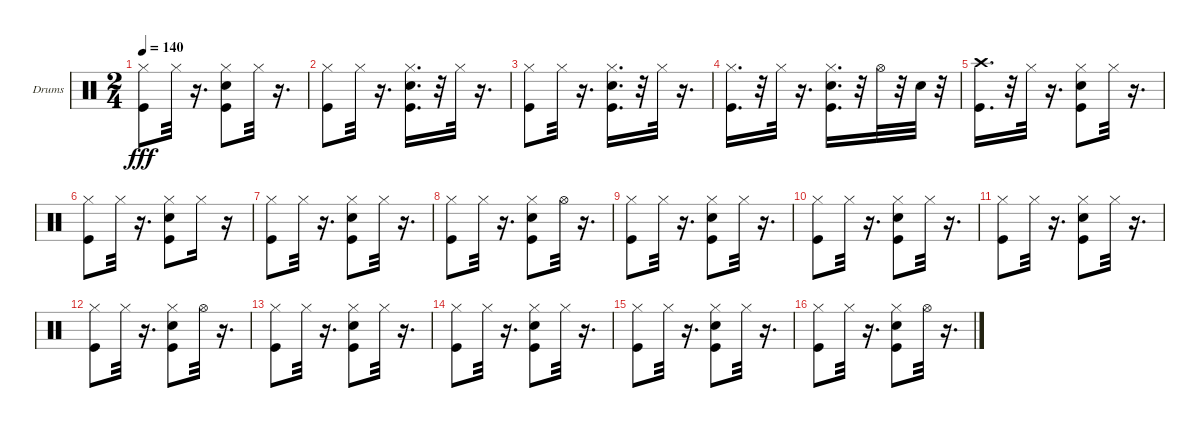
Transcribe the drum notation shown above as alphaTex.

\bracketExtendMode groupsimilarinstruments
\firstSystemTrackNameOrientation horizontal
\otherSystemsTrackNameOrientation horizontal
\track ("Ударные" "Drums") {instrument percussion}
\staff {score}
\articulation defaults
\ts (2 4)
\tempo 140
\clef neutral
\ks c
("Kick (hit)" "Hi-Hat (closed)").8{dy fff} "Hi-Hat (closed)".32 r.16{d} ("Hi-Hat (closed)" "Snare (hit) 2" "Kick (hit)").8 "Hi-Hat (closed)".32 r.16{d} |
("Kick (hit)" "Hi-Hat (closed)").8 "Hi-Hat (closed)".32 r.16{d} ("Snare (hit) 2" "Kick (hit)" "Hi-Hat (closed)").16{d} r.32 "Hi-Hat (closed)".32 r.16{d} |
("Kick (hit)" "Hi-Hat (closed)").8 "Hi-Hat (closed)".32 r.16{d} ("Snare (hit) 2" "Kick (hit)" "Hi-Hat (closed)").16{d} r.32 "Hi-Hat (closed)".32 r.16{d} |
("Kick (hit)" "Hi-Hat (closed)").16{d} r.32 "Hi-Hat (closed)".32 r.16{d} ("Snare (hit) 2" "Kick (hit)" "Hi-Hat (closed)").16{d} r.32 "Hi-Hat (open)".32 r.32 "Snare (hit) 2".32 r.32 |
("Kick (hit)" "Crash high (hit)").16{d} r.32 "Hi-Hat (closed)".32 r.16{d} ("Kick (hit)" "Snare (hit) 2" "Hi-Hat (closed)").8 "Hi-Hat (closed)".32 r.16{d} |
("Kick (hit)" "Hi-Hat (closed)").8 "Hi-Hat (closed)".32 r.16{d} ("Kick (hit)" "Hi-Hat (closed)" "Snare (hit) 2").8 "Hi-Hat (closed)".16 r.16 |
("Kick (hit)" "Hi-Hat (closed)").8 "Hi-Hat (closed)".32 r.16{d} ("Snare (hit) 2" "Kick (hit)" "Hi-Hat (closed)").8 "Hi-Hat (closed)".32 r.16{d} |
("Kick (hit)" "Hi-Hat (closed)").8 "Hi-Hat (closed)".32 r.16{d} ("Snare (hit) 2" "Hi-Hat (closed)" "Kick (hit)").8 "Hi-Hat (open)".32 r.16{d} |
("Kick (hit)" "Hi-Hat (closed)").8 "Hi-Hat (closed)".32 r.16{d} ("Hi-Hat (closed)" "Snare (hit) 2" "Kick (hit)").8 "Hi-Hat (closed)".32 r.16{d} |
("Kick (hit)" "Hi-Hat (closed)").8 "Hi-Hat (closed)".32 r.16{d} ("Snare (hit) 2" "Kick (hit)" "Hi-Hat (closed)").8 "Hi-Hat (closed)".32 r.16{d} |
("Kick (hit)" "Hi-Hat (closed)").8 "Hi-Hat (closed)".32 r.16{d} ("Hi-Hat (closed)" "Snare (hit) 2" "Kick (hit)").8 "Hi-Hat (closed)".32 r.16{d} |
("Kick (hit)" "Hi-Hat (closed)").8 "Hi-Hat (closed)".32 r.16{d} ("Kick (hit)" "Snare (hit) 2" "Hi-Hat (closed)").8 "Hi-Hat (open)".32 r.16{d} |
("Kick (hit)" "Hi-Hat (closed)").8 "Hi-Hat (closed)".32 r.16{d} ("Kick (hit)" "Hi-Hat (closed)" "Snare (hit) 2").8 "Hi-Hat (closed)".32 r.16{d} |
("Kick (hit)" "Hi-Hat (closed)").8 "Hi-Hat (closed)".32 r.16{d} ("Hi-Hat (closed)" "Snare (hit) 2" "Kick (hit)").8 "Hi-Hat (closed)".32 r.16{d} |
("Kick (hit)" "Hi-Hat (closed)").8 "Hi-Hat (closed)".32 r.16{d} ("Snare (hit) 2" "Kick (hit)" "Hi-Hat (closed)").8 "Hi-Hat (closed)".32 r.16{d} |
("Kick (hit)" "Hi-Hat (closed)").8 "Hi-Hat (closed)".32 r.16{d} ("Kick (hit)" "Hi-Hat (closed)" "Snare (hit) 2").8 "Hi-Hat (open)".32 r.16{d}
